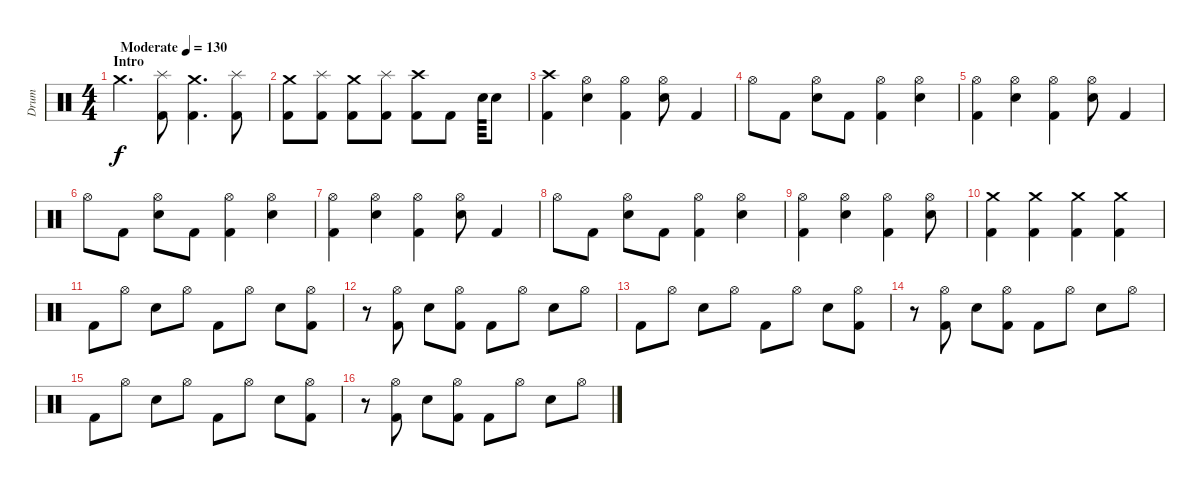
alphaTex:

\track ("Drum" "Drum") {instrument percussion}
\staff {score}
\articulation defaults
\ts (4 4)
\section ("" "Intro")
\tempo (130 "Moderate")
\clef neutral
\ks c "Crash medium (hit)".4{d dy f}
("Splash (hit)" "Kick (hit) 2").8 ("Crash medium (hit)" "Kick (hit) 2").4{d} ("Splash (hit)" "Kick (hit) 2").8 |
("Crash medium (hit)" "Kick (hit) 2").8 ("Splash (hit)" "Kick (hit) 2").8 ("Crash medium (hit)" "Kick (hit) 2").8 ("Splash (hit)" "Kick (hit) 2").8 ("Crash high (hit)" "Kick (hit) 2").8 "Kick (hit) 2".8 "Electric Snare (hit)".64 "Electric Snare (hit)".8 |
("Crash high (hit)" "Kick (hit) 2").4 ("Hi-Hat (open)" "Electric Snare (hit)").4 ("Hi-Hat (open)" "Kick (hit) 2").4 ("Hi-Hat (open)" "Electric Snare (hit)").8 "Kick (hit) 2".4 |
"Hi-Hat (open)".8 "Kick (hit) 2".8 ("Hi-Hat (open)" "Electric Snare (hit)").8 "Kick (hit) 2".8 ("Hi-Hat (open)" "Kick (hit) 2").4 ("Hi-Hat (open)" "Electric Snare (hit)").4 |
("Hi-Hat (open)" "Kick (hit) 2").4 ("Hi-Hat (open)" "Electric Snare (hit)").4 ("Hi-Hat (open)" "Kick (hit) 2").4 ("Hi-Hat (open)" "Electric Snare (hit)").8 "Kick (hit) 2".4 |
"Hi-Hat (open)".8 "Kick (hit) 2".8 ("Hi-Hat (open)" "Electric Snare (hit)").8 "Kick (hit) 2".8 ("Hi-Hat (open)" "Kick (hit) 2").4 ("Hi-Hat (open)" "Electric Snare (hit)").4 |
("Hi-Hat (open)" "Kick (hit) 2").4 ("Hi-Hat (open)" "Electric Snare (hit)").4 ("Hi-Hat (open)" "Kick (hit) 2").4 ("Hi-Hat (open)" "Electric Snare (hit)").8 "Kick (hit) 2".4 |
"Hi-Hat (open)".8 "Kick (hit) 2".8 ("Hi-Hat (open)" "Electric Snare (hit)").8 "Kick (hit) 2".8 ("Hi-Hat (open)" "Kick (hit) 2").4 ("Hi-Hat (open)" "Electric Snare (hit)").4 |
("Hi-Hat (open)" "Kick (hit) 2").4 ("Hi-Hat (open)" "Electric Snare (hit)").4 ("Hi-Hat (open)" "Kick (hit) 2").4 ("Hi-Hat (open)" "Electric Snare (hit)").8 |
("Crash medium (hit)" "Kick (hit) 2").4 ("Crash medium (hit)" "Kick (hit) 2").4 ("Crash medium (hit)" "Kick (hit) 2").4 ("Crash medium (hit)" "Kick (hit) 2").4 |
"Kick (hit) 2".8 "Hi-Hat (open)".8 "Electric Snare (hit)".8 "Hi-Hat (open)".8 "Kick (hit) 2".8 "Hi-Hat (open)".8 "Electric Snare (hit)".8 ("Hi-Hat (open)" "Kick (hit) 2").8 |
r.8 ("Hi-Hat (open)" "Kick (hit) 2").8 "Electric Snare (hit)".8 ("Hi-Hat (open)" "Kick (hit) 2").8 "Kick (hit) 2".8 "Hi-Hat (open)".8 "Electric Snare (hit)".8 "Hi-Hat (open)".8 |
"Kick (hit) 2".8 "Hi-Hat (open)".8 "Electric Snare (hit)".8 "Hi-Hat (open)".8 "Kick (hit) 2".8 "Hi-Hat (open)".8 "Electric Snare (hit)".8 ("Hi-Hat (open)" "Kick (hit) 2").8 |
r.8 ("Hi-Hat (open)" "Kick (hit) 2").8 "Electric Snare (hit)".8 ("Hi-Hat (open)" "Kick (hit) 2").8 "Kick (hit) 2".8 "Hi-Hat (open)".8 "Electric Snare (hit)".8 "Hi-Hat (open)".8 |
"Kick (hit) 2".8 "Hi-Hat (open)".8 "Electric Snare (hit)".8 "Hi-Hat (open)".8 "Kick (hit) 2".8 "Hi-Hat (open)".8 "Electric Snare (hit)".8 ("Hi-Hat (open)" "Kick (hit) 2").8 |
r.8 ("Hi-Hat (open)" "Kick (hit) 2").8 "Electric Snare (hit)".8 ("Hi-Hat (open)" "Kick (hit) 2").8 "Kick (hit) 2".8 "Hi-Hat (open)".8 "Electric Snare (hit)".8 "Hi-Hat (open)".8
